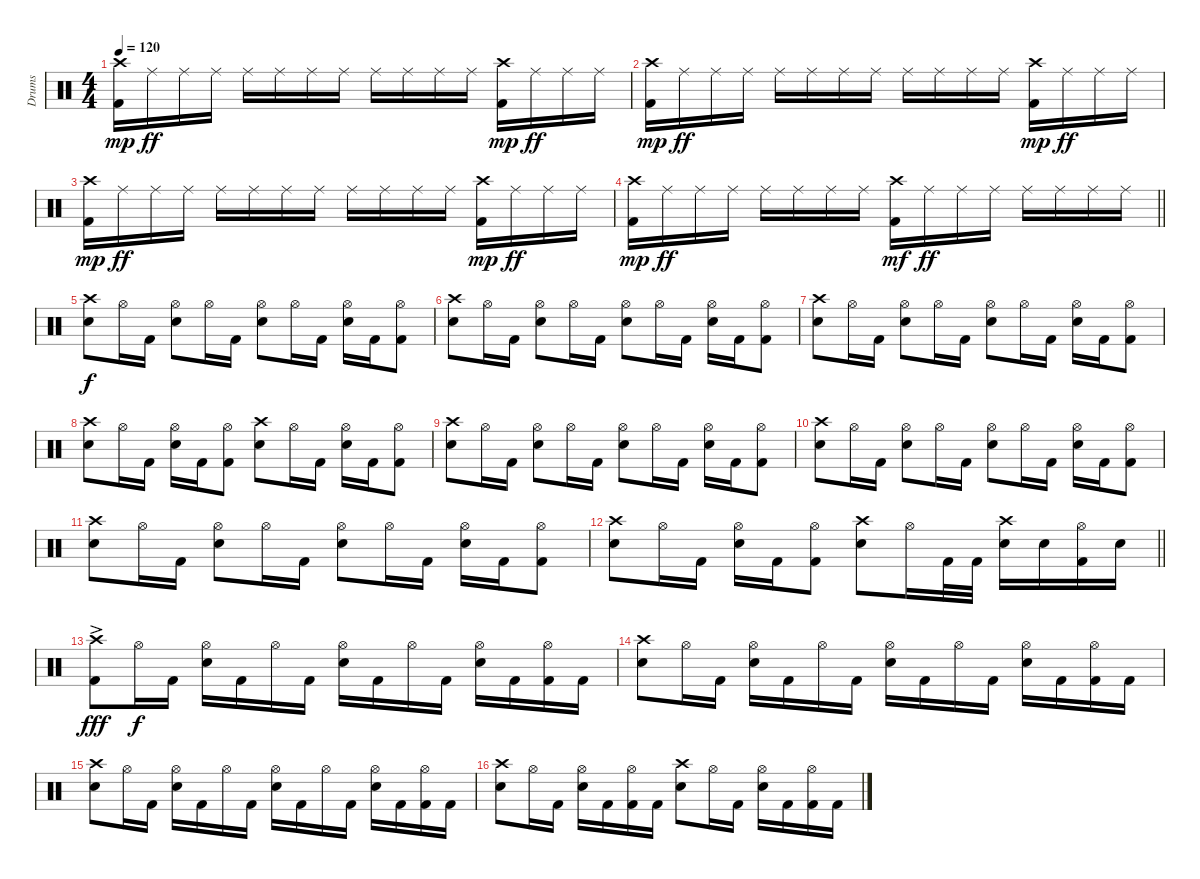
\track ("Drums" "Drums") {instrument percussion}
\staff {score}
\articulation defaults
\ts (4 4)
\tempo 120
\clef neutral
\ks c
("Crash high (hit)" "Kick (hit) 2").16{dy mp} "Ride (middle)".16{dy ff} "Ride (middle)".16 "Ride (middle)".16 "Ride (middle)".16 "Ride (middle)".16 "Ride (middle)".16 "Ride (middle)".16 "Ride (middle)".16 "Ride (middle)".16 "Ride (middle)".16 "Ride (middle)".16 ("Crash high (hit)" "Kick (hit) 2").16{dy mp} "Ride (middle)".16{dy ff} "Ride (middle)".16 "Ride (middle)".16 |
("Crash high (hit)" "Kick (hit) 2").16{dy mp} "Ride (middle)".16{dy ff} "Ride (middle)".16 "Ride (middle)".16 "Ride (middle)".16 "Ride (middle)".16 "Ride (middle)".16 "Ride (middle)".16 "Ride (middle)".16 "Ride (middle)".16 "Ride (middle)".16 "Ride (middle)".16 ("Crash high (hit)" "Kick (hit) 2").16{dy mp} "Ride (middle)".16{dy ff} "Ride (middle)".16 "Ride (middle)".16 |
("Crash high (hit)" "Kick (hit) 2").16{dy mp} "Ride (middle)".16{dy ff} "Ride (middle)".16 "Ride (middle)".16 "Ride (middle)".16 "Ride (middle)".16 "Ride (middle)".16 "Ride (middle)".16 "Ride (middle)".16 "Ride (middle)".16 "Ride (middle)".16 "Ride (middle)".16 ("Crash high (hit)" "Kick (hit) 2").16{dy mp} "Ride (middle)".16{dy ff} "Ride (middle)".16 "Ride (middle)".16 |
\barLineRight lightlight
("Crash high (hit)" "Kick (hit) 2").16{dy mp} "Ride (middle)".16{dy ff} "Ride (middle)".16 "Ride (middle)".16 "Ride (middle)".16 "Ride (middle)".16 "Ride (middle)".16 "Ride (middle)".16 ("Crash high (hit)" "Kick (hit) 2").16{dy mf} "Ride (middle)".16{dy ff} "Ride (middle)".16 "Ride (middle)".16 "Ride (middle)".16 "Ride (middle)".16 "Ride (middle)".16 "Ride (middle)".16 |
("Crash high (hit)" "Snare (hit) 2").8{dy f} "Hi-Hat (open)".16 "Kick (hit) 2".16 ("Hi-Hat (open)" "Snare (hit) 2").8 "Hi-Hat (open)".16 "Kick (hit) 2".16 ("Hi-Hat (open)" "Snare (hit) 2").8 "Hi-Hat (open)".16 "Kick (hit) 2".16 ("Hi-Hat (open)" "Snare (hit) 2").16 "Kick (hit) 2".16 ("Hi-Hat (open)" "Kick (hit) 2").8 |
("Crash high (hit)" "Snare (hit) 2").8 "Hi-Hat (open)".16 "Kick (hit) 2".16 ("Hi-Hat (open)" "Snare (hit) 2").8 "Hi-Hat (open)".16 "Kick (hit) 2".16 ("Hi-Hat (open)" "Snare (hit) 2").8 "Hi-Hat (open)".16 "Kick (hit) 2".16 ("Hi-Hat (open)" "Snare (hit) 2").16 "Kick (hit) 2".16 ("Hi-Hat (open)" "Kick (hit) 2").8 |
("Crash high (hit)" "Snare (hit) 2").8 "Hi-Hat (open)".16 "Kick (hit) 2".16 ("Hi-Hat (open)" "Snare (hit) 2").8 "Hi-Hat (open)".16 "Kick (hit) 2".16 ("Hi-Hat (open)" "Snare (hit) 2").8 "Hi-Hat (open)".16 "Kick (hit) 2".16 ("Hi-Hat (open)" "Snare (hit) 2").16 "Kick (hit) 2".16 ("Hi-Hat (open)" "Kick (hit) 2").8 |
("Crash high (hit)" "Snare (hit) 2").8 "Hi-Hat (open)".16 "Kick (hit) 2".16 ("Hi-Hat (open)" "Snare (hit) 2").16 "Kick (hit) 2".16 ("Hi-Hat (open)" "Kick (hit) 2").8 ("Crash high (hit)" "Snare (hit) 2").8 "Hi-Hat (open)".16 "Kick (hit) 2".16 ("Hi-Hat (open)" "Snare (hit) 2").16 "Kick (hit) 2".16 ("Hi-Hat (open)" "Kick (hit) 2").8 |
("Crash high (hit)" "Snare (hit) 2").8 "Hi-Hat (open)".16 "Kick (hit) 2".16 ("Hi-Hat (open)" "Snare (hit) 2").8 "Hi-Hat (open)".16 "Kick (hit) 2".16 ("Hi-Hat (open)" "Snare (hit) 2").8 "Hi-Hat (open)".16 "Kick (hit) 2".16 ("Hi-Hat (open)" "Snare (hit) 2").16 "Kick (hit) 2".16 ("Hi-Hat (open)" "Kick (hit) 2").8 |
("Crash high (hit)" "Snare (hit) 2").8 "Hi-Hat (open)".16 "Kick (hit) 2".16 ("Hi-Hat (open)" "Snare (hit) 2").8 "Hi-Hat (open)".16 "Kick (hit) 2".16 ("Hi-Hat (open)" "Snare (hit) 2").8 "Hi-Hat (open)".16 "Kick (hit) 2".16 ("Hi-Hat (open)" "Snare (hit) 2").16 "Kick (hit) 2".16 ("Hi-Hat (open)" "Kick (hit) 2").8 |
("Crash high (hit)" "Snare (hit) 2").8 "Hi-Hat (open)".16 "Kick (hit) 2".16 ("Hi-Hat (open)" "Snare (hit) 2").8 "Hi-Hat (open)".16 "Kick (hit) 2".16 ("Hi-Hat (open)" "Snare (hit) 2").8 "Hi-Hat (open)".16 "Kick (hit) 2".16 ("Hi-Hat (open)" "Snare (hit) 2").16 "Kick (hit) 2".16 ("Hi-Hat (open)" "Kick (hit) 2").8 |
\barLineRight lightlight
("Crash high (hit)" "Snare (hit) 2").8 "Hi-Hat (open)".16 "Kick (hit) 2".16 ("Hi-Hat (open)" "Snare (hit) 2").16 "Kick (hit) 2".16 ("Hi-Hat (open)" "Kick (hit) 2").8 ("Crash high (hit)" "Snare (hit) 2").8 "Hi-Hat (open)".16 "Kick (hit) 2".32 "Kick (hit) 2".32 ("Crash high (hit)" "Snare (hit) 2").16 "Snare (hit) 2".16 ("Hi-Hat (open)" "Kick (hit) 2").16 "Snare (hit) 2".16 |
("Crash high (hit)" "Kick (hit) 2"{ac}).8{dy fff} "Hi-Hat (open)".16{dy f} "Kick (hit) 2".16 ("Hi-Hat (open)" "Snare (hit) 2").16 "Kick (hit) 2".16 "Hi-Hat (open)".16 "Kick (hit) 2".16 ("Hi-Hat (open)" "Snare (hit) 2").16 "Kick (hit) 2".16 "Hi-Hat (open)".16 "Kick (hit) 2".16 ("Hi-Hat (open)" "Snare (hit) 2").16 "Kick (hit) 2".16 ("Hi-Hat (open)" "Kick (hit) 2").16 "Kick (hit) 2".16 |
("Crash high (hit)" "Snare (hit) 2").8 "Hi-Hat (open)".16 "Kick (hit) 2".16 ("Hi-Hat (open)" "Snare (hit) 2").16 "Kick (hit) 2".16 "Hi-Hat (open)".16 "Kick (hit) 2".16 ("Hi-Hat (open)" "Snare (hit) 2").16 "Kick (hit) 2".16 "Hi-Hat (open)".16 "Kick (hit) 2".16 ("Hi-Hat (open)" "Snare (hit) 2").16 "Kick (hit) 2".16 ("Hi-Hat (open)" "Kick (hit) 2").16 "Kick (hit) 2".16 |
("Crash high (hit)" "Snare (hit) 2").8 "Hi-Hat (open)".16 "Kick (hit) 2".16 ("Hi-Hat (open)" "Snare (hit) 2").16 "Kick (hit) 2".16 "Hi-Hat (open)".16 "Kick (hit) 2".16 ("Hi-Hat (open)" "Snare (hit) 2").16 "Kick (hit) 2".16 "Hi-Hat (open)".16 "Kick (hit) 2".16 ("Hi-Hat (open)" "Snare (hit) 2").16 "Kick (hit) 2".16 ("Hi-Hat (open)" "Kick (hit) 2").16 "Kick (hit) 2".16 |
("Crash high (hit)" "Snare (hit) 2").8 "Hi-Hat (open)".16 "Kick (hit) 2".16 ("Hi-Hat (open)" "Snare (hit) 2").16 "Kick (hit) 2".16 ("Hi-Hat (open)" "Kick (hit) 2").16 "Kick (hit) 2".16 ("Crash high (hit)" "Snare (hit) 2").8 "Hi-Hat (open)".16 "Kick (hit) 2".16 ("Hi-Hat (open)" "Snare (hit) 2").16 "Kick (hit) 2".16 ("Hi-Hat (open)" "Kick (hit) 2").16 "Kick (hit) 2".16
